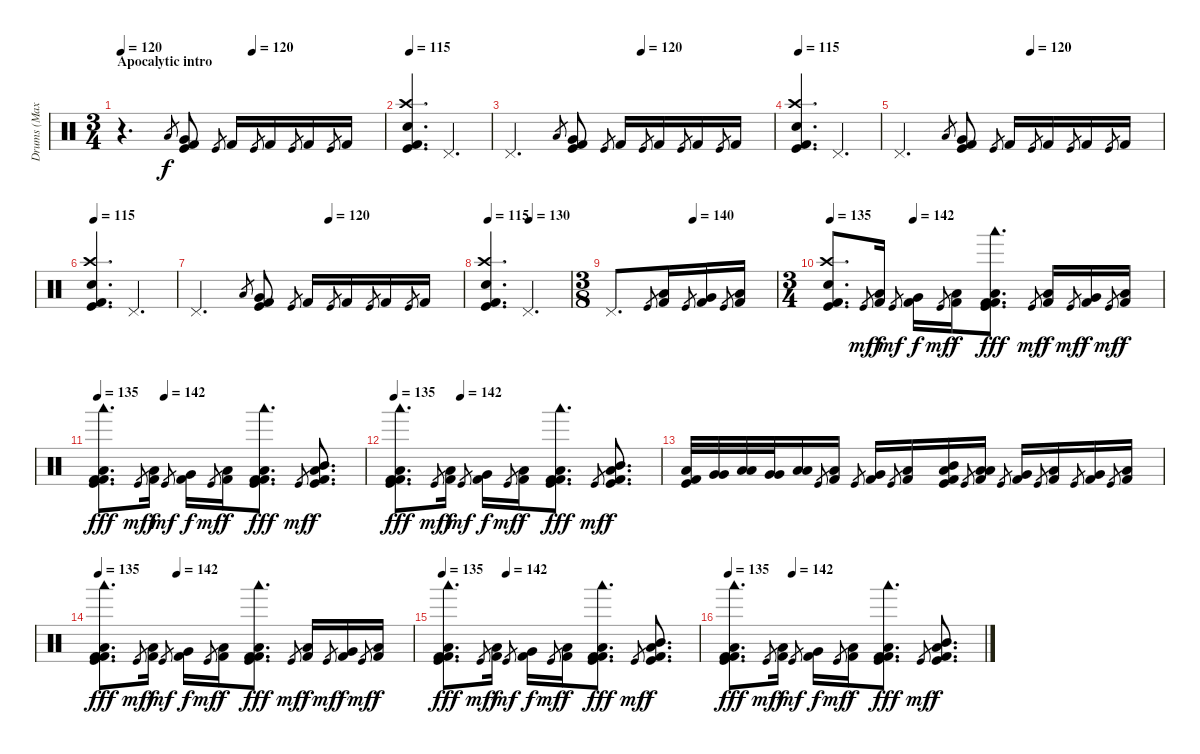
\track ("Drums (Max)" "Drums (Max") {instrument percussion}
\staff {score}
\articulation defaults
\ts (3 4)
\section ("" "Apocalytic intro")
\tempo 120
\tempo (120 0.5)
\clef neutral
\ks c
r.4{d dy f} "Low Tom (hit)".8{gr} ("Very Low Tom (hit)" "Kick (hit)" "Kick (hit) 2").8 "Kick (hit)".8{gr} "Kick (hit) 2".16 "Kick (hit)".8{gr} "Kick (hit) 2".16 "Kick (hit)".8{gr} "Kick (hit) 2".16 "Kick (hit)".8{gr} "Kick (hit) 2".16 |
\tempo 115
("Crash high (hit)" "Snare (hit) 2" "Kick (hit)" "Kick (hit) 2").4{d} "Pedal Hi-Hat (hit)".4{d} |
\tempo (120 0.5)
"Pedal Hi-Hat (hit)".4{d} "Low Tom (hit)".8{gr} ("Very Low Tom (hit)" "Kick (hit)" "Kick (hit) 2").8 "Kick (hit)".8{gr} "Kick (hit) 2".16 "Kick (hit)".8{gr} "Kick (hit) 2".16 "Kick (hit)".8{gr} "Kick (hit) 2".16 "Kick (hit)".8{gr} "Kick (hit) 2".16 |
\tempo 115
("Crash high (hit)" "Snare (hit) 2" "Kick (hit)" "Kick (hit) 2").4{d} "Pedal Hi-Hat (hit)".4{d} |
\tempo (120 0.5)
"Pedal Hi-Hat (hit)".4{d} "Low Tom (hit)".8{gr} ("Very Low Tom (hit)" "Kick (hit)" "Kick (hit) 2").8 "Kick (hit)".8{gr} "Kick (hit) 2".16 "Kick (hit)".8{gr} "Kick (hit) 2".16 "Kick (hit)".8{gr} "Kick (hit) 2".16 "Kick (hit)".8{gr} "Kick (hit) 2".16 |
\tempo 115
("Crash high (hit)" "Snare (hit) 2" "Kick (hit)" "Kick (hit) 2").4{d} "Pedal Hi-Hat (hit)".4{d} |
\tempo (120 0.5)
"Pedal Hi-Hat (hit)".4{d} "Low Tom (hit)".8{gr} ("Very Low Tom (hit)" "Kick (hit)" "Kick (hit) 2").8 "Kick (hit)".8{gr} "Kick (hit) 2".16 "Kick (hit)".8{gr} "Kick (hit) 2".16 "Kick (hit)".8{gr} "Kick (hit) 2".16 "Kick (hit)".8{gr} "Kick (hit) 2".16 |
\tempo 115
\tempo (130 0.5)
("Crash high (hit)" "Snare (hit) 2" "Kick (hit)" "Kick (hit) 2").4{d} "Pedal Hi-Hat (hit)".4{d} |
\ts (3 8)
\tempo (140 0.5)
"Pedal Hi-Hat (hit)".8{d} "Kick (hit)".8{gr} ("Low Tom (hit)" "Kick (hit) 2").16 "Kick (hit)".8{gr} ("Very Low Tom (hit)" "Kick (hit) 2").16 "Kick (hit)".8{gr} ("Low Floor Tom (hit)" "Kick (hit) 2").16 |
\ts (3 4)
\tempo 135
\tempo (142 0.25)
("Crash high (hit)" "Snare (hit) 2" "Kick (hit)" "Kick (hit) 2").8{d} "Kick (hit)".8{gr dy mf} ("Low Tom (hit)" "Kick (hit) 2").16{dy f} "Kick (hit)".8{gr dy mf} ("Very Low Tom (hit)" "Kick (hit) 2").16{dy f} "Kick (hit)".8{gr dy mf} ("Low Tom (hit)" "Kick (hit) 2").16{dy f} ("Woodblock low (hit)" "Low Floor Tom (hit)" "Kick (hit)" "Kick (hit) 2" "Kick (hit) 2").8{d dy fff} "Kick (hit)".8{gr dy mf} ("Low Tom (hit)" "Kick (hit) 2").16{dy f} "Kick (hit)".8{gr dy mf} ("Very Low Tom (hit)" "Kick (hit) 2").16{dy f} "Kick (hit)".8{gr dy mf} ("Low Tom (hit)" "Kick (hit) 2").16{dy f} |
\tempo 135
\tempo (142 0.25)
("Woodblock low (hit)" "Low Floor Tom (hit)" "Kick (hit)" "Kick (hit) 2" "Kick (hit) 2").8{d dy fff} "Kick (hit)".8{gr dy mf} ("Low Tom (hit)" "Kick (hit) 2").16{dy f} "Kick (hit)".8{gr dy mf} ("Very Low Tom (hit)" "Kick (hit) 2").16{dy f} "Kick (hit)".8{gr dy mf} ("Low Tom (hit)" "Kick (hit) 2").16{dy f} ("Woodblock low (hit)" "Low Floor Tom (hit)" "Kick (hit)" "Kick (hit) 2" "Kick (hit) 2").8{d dy fff} "Kick (hit)".8{gr dy mf} ("Low Floor Tom (hit)" "Mid Tom (hit)" "Kick (hit)" "Kick (hit) 2").8{d dy f} |
\tempo 135
\tempo (142 0.25)
("Woodblock low (hit)" "Low Floor Tom (hit)" "Kick (hit)" "Kick (hit) 2" "Kick (hit) 2").8{d dy fff} "Kick (hit)".8{gr dy mf} ("Low Tom (hit)" "Kick (hit) 2").16{dy f} "Kick (hit)".8{gr dy mf} ("Very Low Tom (hit)" "Kick (hit) 2").16{dy f} "Kick (hit)".8{gr dy mf} ("Low Tom (hit)" "Kick (hit) 2").16{dy f} ("Woodblock low (hit)" "Low Floor Tom (hit)" "Kick (hit)" "Kick (hit) 2" "Kick (hit) 2").8{d dy fff} "Kick (hit)".8{gr dy mf} ("Low Floor Tom (hit)" "Mid Tom (hit)" "Kick (hit)" "Kick (hit) 2").8{d dy f} |
("Low Tom (hit)" "Kick (hit)" "Kick (hit) 2").32 ("Very Low Tom (hit)" "Very Low Tom (hit)").32 ("Low Tom (hit)" "Low Tom (hit)").32 ("Very Low Tom (hit)" "Very Low Tom (hit)").32 ("Low Floor Tom (hit)" "Low Floor Tom (hit)").16 "Kick (hit)".8{gr} ("Low Tom (hit)" "Kick (hit) 2").16 "Kick (hit)".8{gr} ("Very Low Tom (hit)" "Kick (hit) 2").16 "Kick (hit)".8{gr} ("Low Floor Tom (hit)" "Kick (hit) 2").16 ("Low Tom (hit)" "Mid Tom (hit)" "Kick (hit)" "Kick (hit) 2").16 "Kick (hit)".8{gr} ("Low Tom (hit)" "Low Tom (hit)" "Kick (hit) 2").16 "Kick (hit)".8{gr} ("Very Low Tom (hit)" "Kick (hit) 2").16 "Kick (hit)".8{gr} ("Low Tom (hit)" "Kick (hit) 2").16 "Kick (hit)".8{gr} ("Very Low Tom (hit)" "Kick (hit) 2").16 "Kick (hit)".8{gr} ("Low Floor Tom (hit)" "Kick (hit) 2").16 |
\tempo 135
\tempo (142 0.25)
("Woodblock low (hit)" "Low Floor Tom (hit)" "Kick (hit)" "Kick (hit) 2" "Kick (hit) 2").8{d dy fff} "Kick (hit)".8{gr dy mf} ("Low Tom (hit)" "Kick (hit) 2").16{dy f} "Kick (hit)".8{gr dy mf} ("Very Low Tom (hit)" "Kick (hit) 2").16{dy f} "Kick (hit)".8{gr dy mf} ("Low Tom (hit)" "Kick (hit) 2").16{dy f} ("Woodblock low (hit)" "Low Floor Tom (hit)" "Kick (hit)" "Kick (hit) 2" "Kick (hit) 2").8{d dy fff} "Kick (hit)".8{gr dy mf} ("Low Tom (hit)" "Kick (hit) 2").16{dy f} "Kick (hit)".8{gr dy mf} ("Very Low Tom (hit)" "Kick (hit) 2").16{dy f} "Kick (hit)".8{gr dy mf} ("Low Tom (hit)" "Kick (hit) 2").16{dy f} |
\tempo 135
\tempo (142 0.25)
("Woodblock low (hit)" "Low Floor Tom (hit)" "Kick (hit)" "Kick (hit) 2" "Kick (hit) 2").8{d dy fff} "Kick (hit)".8{gr dy mf} ("Low Tom (hit)" "Kick (hit) 2").16{dy f} "Kick (hit)".8{gr dy mf} ("Very Low Tom (hit)" "Kick (hit) 2").16{dy f} "Kick (hit)".8{gr dy mf} ("Low Tom (hit)" "Kick (hit) 2").16{dy f} ("Woodblock low (hit)" "Low Floor Tom (hit)" "Kick (hit)" "Kick (hit) 2" "Kick (hit) 2").8{d dy fff} "Kick (hit)".8{gr dy mf} ("Low Floor Tom (hit)" "Mid Tom (hit)" "Kick (hit)" "Kick (hit) 2").8{d dy f} |
\tempo 135
\tempo (142 0.25)
("Woodblock low (hit)" "Low Floor Tom (hit)" "Kick (hit)" "Kick (hit) 2" "Kick (hit) 2").8{d dy fff} "Kick (hit)".8{gr dy mf} ("Low Tom (hit)" "Kick (hit) 2").16{dy f} "Kick (hit)".8{gr dy mf} ("Very Low Tom (hit)" "Kick (hit) 2").16{dy f} "Kick (hit)".8{gr dy mf} ("Low Tom (hit)" "Kick (hit) 2").16{dy f} ("Woodblock low (hit)" "Low Floor Tom (hit)" "Kick (hit)" "Kick (hit) 2" "Kick (hit) 2").8{d dy fff} "Kick (hit)".8{gr dy mf} ("Low Floor Tom (hit)" "Mid Tom (hit)" "Kick (hit)" "Kick (hit) 2").8{d dy f}
